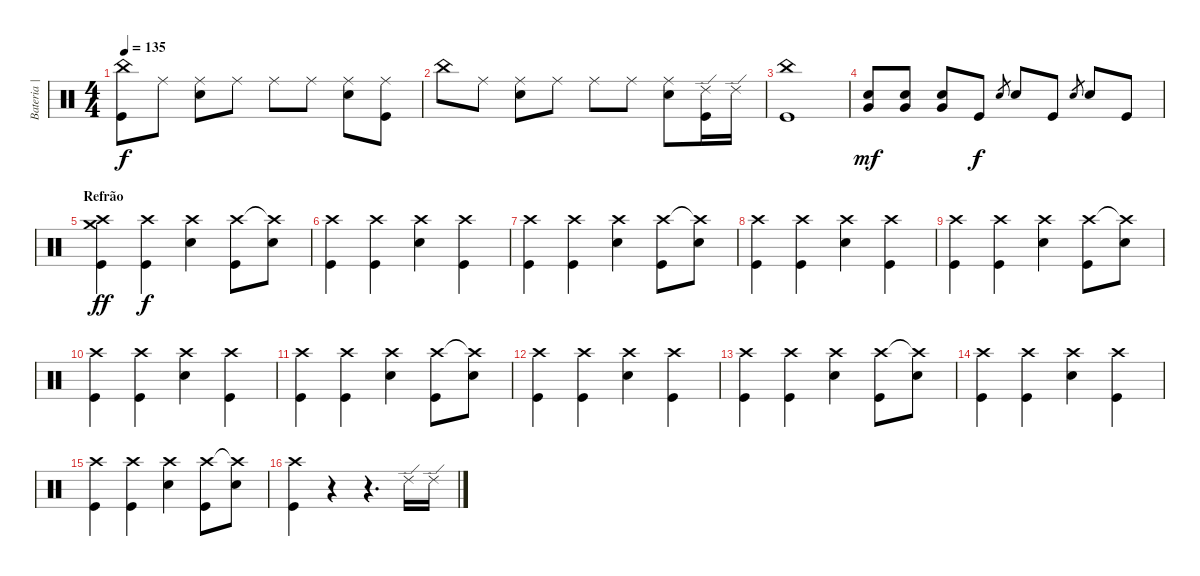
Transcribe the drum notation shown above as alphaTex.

\track ("Bateria | Bernardo" "Bateria | ") {instrument percussion}
\staff {score}
\articulation defaults
\ts (4 4)
\tempo 135
\clef neutral
\ks c
("China (hit)" "Kick (hit)").8{dy f} "Ride (middle)".8 ("Ride (middle)" "Snare (hit) 2").8 "Ride (middle)".8 "Ride (middle)".8 "Ride (middle)".8 ("Ride (middle)" "Snare (hit) 2").8 ("Ride (middle)" "Kick (hit)").8 |
"China (hit)".8 "Ride (middle)".8 ("Ride (middle)" "Snare (hit) 2").8 "Ride (middle)".8 "Ride (middle)".8 "Ride (middle)".8 ("Ride (middle)" "Snare (hit) 2").8 ("Ride (edge) 2" "Kick (hit)").16 "Ride (edge) 2".16 |
("China (hit)" "Kick (hit)").1 |
("Snare (hit) 2" "Very Low Tom (hit)").8{dy mf} ("Snare (hit) 2" "Very Low Tom (hit)").8 ("Snare (hit) 2" "Very Low Tom (hit)").8 "Kick (hit)".8{dy f} "Snare (hit) 2".8{gr} "Snare (hit) 2".8 "Kick (hit)".8 "Snare (hit) 2".8{gr} "Snare (hit) 2".8 "Kick (hit)".8 |
\section ("" "Refrão")
("Crash medium (hit)" "Crash high (hit)" "Kick (hit)").4{dy ff} ("Crash high (hit)" "Kick (hit)").4{dy f} ("Crash high (hit)" "Snare (hit) 2").4 ("Crash high (hit)" "Kick (hit)").8 ("Crash high (hit)"{t} "Snare (hit) 2").8 |
("Crash high (hit)" "Kick (hit)").4 ("Crash high (hit)" "Kick (hit)").4 ("Crash high (hit)" "Snare (hit) 2").4 ("Crash high (hit)" "Kick (hit)").4 |
("Crash high (hit)" "Kick (hit)").4 ("Crash high (hit)" "Kick (hit)").4 ("Crash high (hit)" "Snare (hit) 2").4 ("Crash high (hit)" "Kick (hit)").8 ("Crash high (hit)"{t} "Snare (hit) 2").8 |
("Crash high (hit)" "Kick (hit)").4 ("Crash high (hit)" "Kick (hit)").4 ("Crash high (hit)" "Snare (hit) 2").4 ("Crash high (hit)" "Kick (hit)").4 |
("Crash high (hit)" "Kick (hit)").4 ("Crash high (hit)" "Kick (hit)").4 ("Crash high (hit)" "Snare (hit) 2").4 ("Crash high (hit)" "Kick (hit)").8 ("Crash high (hit)"{t} "Snare (hit) 2").8 |
("Crash high (hit)" "Kick (hit)").4 ("Crash high (hit)" "Kick (hit)").4 ("Crash high (hit)" "Snare (hit) 2").4 ("Crash high (hit)" "Kick (hit)").4 |
("Crash high (hit)" "Kick (hit)").4 ("Crash high (hit)" "Kick (hit)").4 ("Crash high (hit)" "Snare (hit) 2").4 ("Crash high (hit)" "Kick (hit)").8 ("Crash high (hit)"{t} "Snare (hit) 2").8 |
("Crash high (hit)" "Kick (hit)").4 ("Crash high (hit)" "Kick (hit)").4 ("Crash high (hit)" "Snare (hit) 2").4 ("Crash high (hit)" "Kick (hit)").4 |
("Crash high (hit)" "Kick (hit)").4 ("Crash high (hit)" "Kick (hit)").4 ("Crash high (hit)" "Snare (hit) 2").4 ("Crash high (hit)" "Kick (hit)").8 ("Crash high (hit)"{t} "Snare (hit) 2").8 |
("Crash high (hit)" "Kick (hit)").4 ("Crash high (hit)" "Kick (hit)").4 ("Crash high (hit)" "Snare (hit) 2").4 ("Crash high (hit)" "Kick (hit)").4 |
("Crash high (hit)" "Kick (hit)").4 ("Crash high (hit)" "Kick (hit)").4 ("Crash high (hit)" "Snare (hit) 2").4 ("Crash high (hit)" "Kick (hit)").8 ("Crash high (hit)"{t} "Snare (hit) 2").8 |
("Crash high (hit)" "Kick (hit)").4 r.4 r.4{d} "Ride (edge) 2".16 "Ride (edge) 2".16
